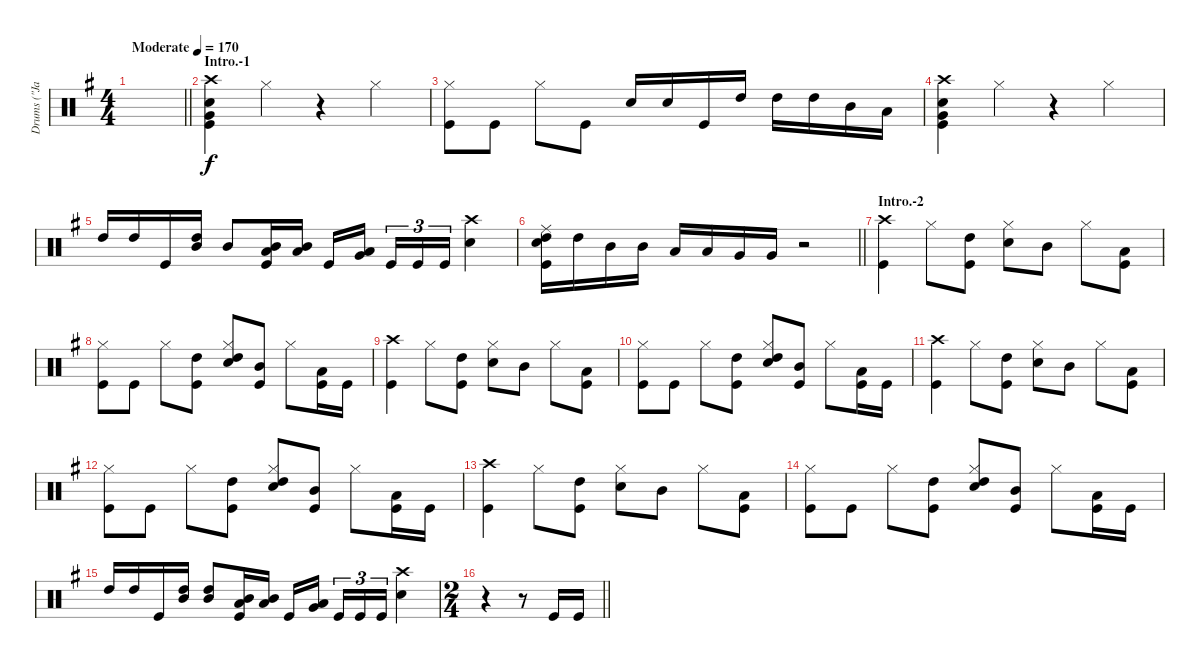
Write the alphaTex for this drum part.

\track ("Drums (\"Jane\")" "Drums (\"Ja") {instrument percussion}
\staff {score}
\articulation defaults
\ts (4 4)
\tempo (170 "Moderate")
\clef neutral
\barLineRight lightlight
\ks g
|
\section ("" "Intro.-1")
("Crash high (hit)" "Snare (hit) 2" "Very Low Tom (hit)" "Kick (hit)").4 "Hi-Hat (closed)".4 r.4 "Hi-Hat (closed)".4 |
("Hi-Hat (closed)" "Kick (hit)").8 "Kick (hit)".8 "Hi-Hat (closed)".8 "Kick (hit)".8 "Snare (hit) 2".16 "Snare (hit) 2".16 "Kick (hit)".16 "High Tom (hit)".16 "High Tom (hit)".16 "High Tom (hit)".16 "Mid Tom (hit)".16 "Low Tom (hit)".16 |
("Crash high (hit)" "Snare (hit) 2" "Very Low Tom (hit)" "Kick (hit)").4 "Hi-Hat (closed)".4 r.4 "Hi-Hat (closed)".4 |
"High Tom (hit)".16 "High Tom (hit)".16 "Kick (hit)".16 ("High Tom (hit)" "Mid Tom (hit)").16 "Mid Tom (hit)".8 ("Low Tom (hit)" "Mid Tom (hit)" "Kick (hit)").16 ("Low Tom (hit)" "Mid Tom (hit)").16 "Kick (hit)".16 ("Low Tom (hit)" "Very Low Tom (hit)").16{beam splitsecondary} "Kick (hit)".16{tu (3 2)} "Kick (hit)".16{tu (3 2)} "Kick (hit)".16{tu (3 2)} ("Crash high (hit)" "Snare (hit) 2").4 |
\barLineRight lightlight
("Ride (middle)" "Snare (hit) 2" "High Tom (hit)" "Kick (hit)").16 "High Tom (hit)".16 "Mid Tom (hit)".16 "Mid Tom (hit)".16 "Low Tom (hit)".16 "Low Tom (hit)".16 "Very Low Tom (hit)".16 "Very Low Tom (hit)".16 r.2 |
\section ("" "Intro.-2")
("Crash high (hit)" "Kick (hit)").4 "Hi-Hat (closed)".8 ("High Tom (hit)" "Kick (hit)").8 ("Hi-Hat (closed)" "Snare (hit) 2").8 "Mid Tom (hit)".8 "Hi-Hat (closed)".8 ("Low Tom (hit)" "Kick (hit)").8 |
("Hi-Hat (closed)" "Kick (hit)").8 "Kick (hit)".8 "Hi-Hat (closed)".8 ("High Tom (hit)" "Kick (hit)").8 ("Hi-Hat (closed)" "Snare (hit) 2" "High Tom (hit)").8 ("Mid Tom (hit)" "Kick (hit)").8 "Hi-Hat (closed)".8 ("Low Tom (hit)" "Kick (hit)").16 "Kick (hit)".16 |
("Crash high (hit)" "Kick (hit)").4 "Hi-Hat (closed)".8 ("High Tom (hit)" "Kick (hit)").8 ("Hi-Hat (closed)" "Snare (hit) 2").8 "Mid Tom (hit)".8 "Hi-Hat (closed)".8 ("Low Tom (hit)" "Kick (hit)").8 |
("Hi-Hat (closed)" "Kick (hit)").8 "Kick (hit)".8 "Hi-Hat (closed)".8 ("High Tom (hit)" "Kick (hit)").8 ("Hi-Hat (closed)" "Snare (hit) 2" "High Tom (hit)").8 ("Mid Tom (hit)" "Kick (hit)").8 "Hi-Hat (closed)".8 ("Low Tom (hit)" "Kick (hit)").16 "Kick (hit)".16 |
("Crash high (hit)" "Kick (hit)").4 "Hi-Hat (closed)".8 ("High Tom (hit)" "Kick (hit)").8 ("Hi-Hat (closed)" "Snare (hit) 2").8 "Mid Tom (hit)".8 "Hi-Hat (closed)".8 ("Low Tom (hit)" "Kick (hit)").8 |
("Hi-Hat (closed)" "Kick (hit)").8 "Kick (hit)".8 "Hi-Hat (closed)".8 ("High Tom (hit)" "Kick (hit)").8 ("Hi-Hat (closed)" "Snare (hit) 2" "High Tom (hit)").8 ("Mid Tom (hit)" "Kick (hit)").8 "Hi-Hat (closed)".8 ("Low Tom (hit)" "Kick (hit)").16 "Kick (hit)".16 |
("Crash high (hit)" "Kick (hit)").4 "Hi-Hat (closed)".8 ("High Tom (hit)" "Kick (hit)").8 ("Hi-Hat (closed)" "Snare (hit) 2").8 "Mid Tom (hit)".8 "Hi-Hat (closed)".8 ("Low Tom (hit)" "Kick (hit)").8 |
("Hi-Hat (closed)" "Kick (hit)").8 "Kick (hit)".8 "Hi-Hat (closed)".8 ("High Tom (hit)" "Kick (hit)").8 ("Hi-Hat (closed)" "Snare (hit) 2" "High Tom (hit)").8 ("Mid Tom (hit)" "Kick (hit)").8 "Hi-Hat (closed)".8 ("Low Tom (hit)" "Kick (hit)").16 "Kick (hit)".16 |
"High Tom (hit)".16 "High Tom (hit)".16 "Kick (hit)".16 ("High Tom (hit)" "Mid Tom (hit)").16 ("High Tom (hit)" "Mid Tom (hit)").8 ("Low Tom (hit)" "Mid Tom (hit)" "Kick (hit)").16 ("Low Tom (hit)" "Mid Tom (hit)").16 "Kick (hit)".16 ("Low Tom (hit)" "Very Low Tom (hit)").16{beam splitsecondary} "Kick (hit)".16{tu (3 2)} "Kick (hit)".16{tu (3 2)} "Kick (hit)".16{tu (3 2)} ("Crash high (hit)" "Snare (hit) 2").4 |
\ts (2 4)
\barLineRight lightlight
r.4 r.8 "Kick (hit)".16 "Kick (hit)".16
